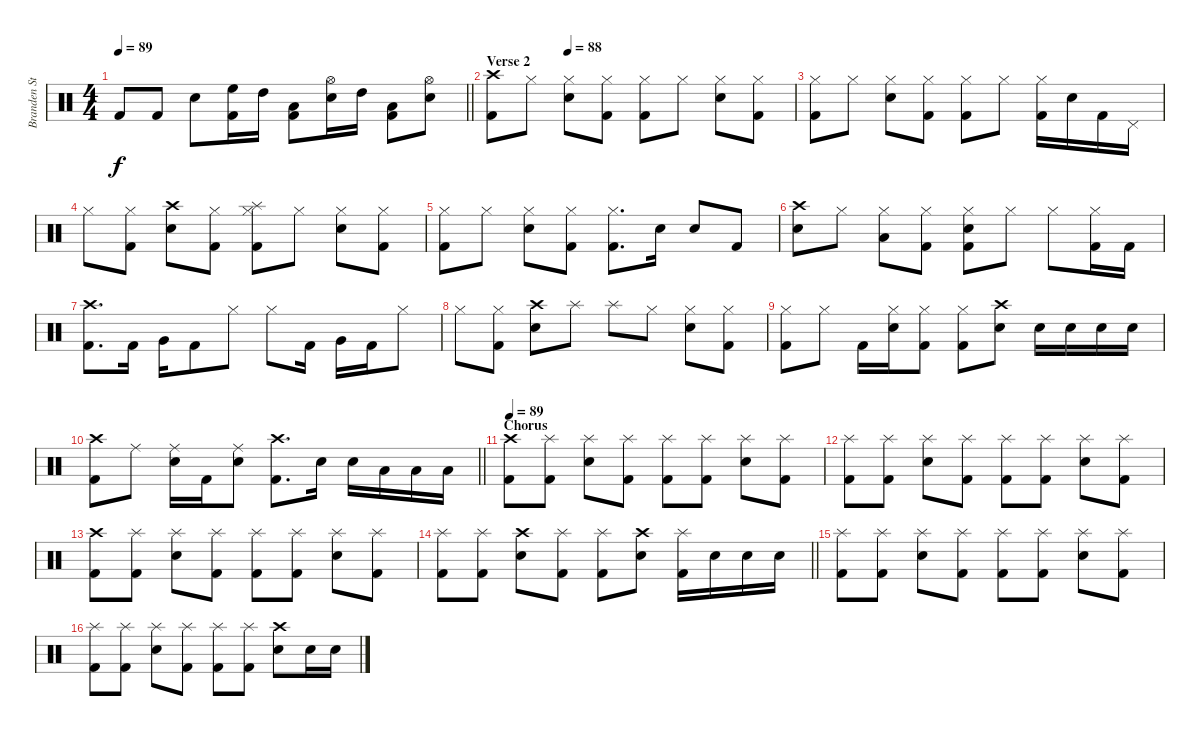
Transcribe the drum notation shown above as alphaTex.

\track ("Branden Steineckert" "Branden St") {instrument percussion}
\staff {score}
\articulation defaults
\ts (4 4)
\tempo 89
\clef neutral
\barLineRight lightlight
\ks c "Kick (hit) 2".8{dy f} "Kick (hit) 2".8 "Electric Snare (hit)".8
("High Floor Tom (hit)" "Kick (hit) 2").16 "High Tom (hit)".16 ("Low Floor Tom (hit)" "Kick (hit) 2").8 ("Hi-Hat (open)" "Electric Snare (hit)").16 "High Tom (hit)".16 ("Low Floor Tom (hit)" "Kick (hit) 2").8 ("Hi-Hat (open)" "Electric Snare (hit)").8 |
\section ("" "Verse 2")
\tempo (88 0.25)
("Crash high (hit)" "Kick (hit) 2").8 "Hi-Hat (closed)".8 ("Hi-Hat (closed)" "Electric Snare (hit)").8 ("Hi-Hat (closed)" "Kick (hit) 2").8 ("Hi-Hat (closed)" "Kick (hit) 2").8 "Hi-Hat (closed)".8 ("Hi-Hat (closed)" "Electric Snare (hit)").8 ("Hi-Hat (closed)" "Kick (hit) 2").8 |
("Hi-Hat (closed)" "Kick (hit) 2").8 "Hi-Hat (closed)".8 ("Hi-Hat (closed)" "Electric Snare (hit)").8 ("Hi-Hat (closed)" "Kick (hit) 2").8 ("Hi-Hat (closed)" "Kick (hit) 2").8 "Hi-Hat (closed)".8 ("Hi-Hat (closed)" "Kick (hit) 2").16 "Electric Snare (hit)".16 "Kick (hit) 2".16 "Pedal Hi-Hat (hit)".16 |
"Hi-Hat (closed)".8 ("Hi-Hat (closed)" "Kick (hit) 2").8 ("Crash high (hit)" "Electric Snare (hit)").8 ("Hi-Hat (closed)" "Kick (hit) 2").8 ("Splash (hit)" "Hi-Hat (closed)" "Kick (hit) 2").8 "Hi-Hat (closed)".8 ("Hi-Hat (closed)" "Electric Snare (hit)").8 ("Hi-Hat (closed)" "Kick (hit) 2").8 |
("Hi-Hat (closed)" "Kick (hit) 2").8 "Hi-Hat (closed)".8 ("Hi-Hat (closed)" "Electric Snare (hit)").8 ("Hi-Hat (closed)" "Kick (hit) 2").8 ("Hi-Hat (closed)" "Kick (hit) 2").8{d} "Electric Snare (hit)".16 "Electric Snare (hit)".8 "Kick (hit) 2".8 |
("Crash high (hit)" "Electric Snare (hit)").8 "Hi-Hat (closed)".8 ("Low Floor Tom (hit)" "Hi-Hat (closed)").8 ("Hi-Hat (closed)" "Kick (hit) 2").8 ("Electric Snare (hit)" "Hi-Hat (closed)" "Kick (hit) 2").8 "Hi-Hat (closed)".8 "Hi-Hat (closed)".8 ("Hi-Hat (closed)" "Kick (hit) 2").16 "Kick (hit) 2".16 |
("Crash high (hit)" "Kick (hit) 2").8{d} "Kick (hit) 2".16 "Very Low Tom (hit)".16 "Kick (hit) 2".8 "Hi-Hat (closed)".8 "Hi-Hat (closed)".8 "Kick (hit) 2".16 "Very Low Tom (hit)".16 "Kick (hit) 2".16 "Hi-Hat (closed)".8 |
"Hi-Hat (closed)".8 ("Hi-Hat (closed)" "Kick (hit) 2").8 ("Crash high (hit)" "Electric Snare (hit)").8 "Splash (hit)".8 "Splash (hit)".8 "Hi-Hat (closed)".8 ("Hi-Hat (closed)" "Electric Snare (hit)").8 ("Hi-Hat (closed)" "Kick (hit) 2").8 |
("Hi-Hat (closed)" "Kick (hit) 2").8 "Hi-Hat (closed)".8 "Kick (hit) 2".16 ("Hi-Hat (closed)" "Electric Snare (hit)").16 ("Hi-Hat (closed)" "Kick (hit) 2").8 ("Hi-Hat (closed)" "Kick (hit) 2").8 ("Crash high (hit)" "Electric Snare (hit)").8 "Electric Snare (hit)".16 "Electric Snare (hit)".16 "Electric Snare (hit)".16 "Electric Snare (hit)".16 |
\barLineRight lightlight
("Crash high (hit)" "Kick (hit) 2").8 "Ride (middle)".8 ("Ride (middle)" "Electric Snare (hit)").16 "Kick (hit) 2".16 ("Ride (middle)" "Electric Snare (hit)").8 ("Crash high (hit)" "Kick (hit) 2").8{d} "Electric Snare (hit)".16 "Electric Snare (hit)".16 "Low Floor Tom (hit)".16 "Low Floor Tom (hit)".16 "Low Floor Tom (hit)".16 |
\section ("" "Chorus")
\tempo 89
("Crash high (hit)" "Kick (hit) 2").8 ("Splash (hit)" "Kick (hit) 2").8 ("Splash (hit)" "Electric Snare (hit)").8 ("Splash (hit)" "Kick (hit) 2").8 ("Splash (hit)" "Kick (hit) 2").8 ("Splash (hit)" "Kick (hit) 2").8 ("Splash (hit)" "Electric Snare (hit)").8 ("Splash (hit)" "Kick (hit) 2").8 |
("Splash (hit)" "Kick (hit) 2").8 ("Splash (hit)" "Kick (hit) 2").8 ("Splash (hit)" "Electric Snare (hit)").8 ("Splash (hit)" "Kick (hit) 2").8 ("Splash (hit)" "Kick (hit) 2").8 ("Splash (hit)" "Kick (hit) 2").8 ("Splash (hit)" "Electric Snare (hit)").8 ("Splash (hit)" "Kick (hit) 2").8 |
("Crash high (hit)" "Kick (hit) 2").8 ("Splash (hit)" "Kick (hit) 2").8 ("Splash (hit)" "Electric Snare (hit)").8 ("Splash (hit)" "Kick (hit) 2").8 ("Splash (hit)" "Kick (hit) 2").8 ("Splash (hit)" "Kick (hit) 2").8 ("Splash (hit)" "Electric Snare (hit)").8 ("Splash (hit)" "Kick (hit) 2").8 |
\barLineRight lightlight
("Splash (hit)" "Kick (hit) 2").8 ("Splash (hit)" "Kick (hit) 2").8 ("Crash high (hit)" "Electric Snare (hit)").8 ("Splash (hit)" "Kick (hit) 2").8 ("Splash (hit)" "Kick (hit) 2").8 ("Crash high (hit)" "Electric Snare (hit)").8 ("Splash (hit)" "Kick (hit) 2").16 "Electric Snare (hit)".16 "Electric Snare (hit)".16 "Electric Snare (hit)".16 |
("Splash (hit)" "Kick (hit) 2").8 ("Splash (hit)" "Kick (hit) 2").8 ("Splash (hit)" "Electric Snare (hit)").8 ("Splash (hit)" "Kick (hit) 2").8 ("Splash (hit)" "Kick (hit) 2").8 ("Splash (hit)" "Kick (hit) 2").8 ("Splash (hit)" "Electric Snare (hit)").8 ("Splash (hit)" "Kick (hit) 2").8 |
("Splash (hit)" "Kick (hit) 2").8 ("Splash (hit)" "Kick (hit) 2").8 ("Splash (hit)" "Electric Snare (hit)").8 ("Splash (hit)" "Kick (hit) 2").8 ("Splash (hit)" "Kick (hit) 2").8 ("Splash (hit)" "Kick (hit) 2").8 ("Crash high (hit)" "Electric Snare (hit)").8 "Electric Snare (hit)".16 "Electric Snare (hit)".16
